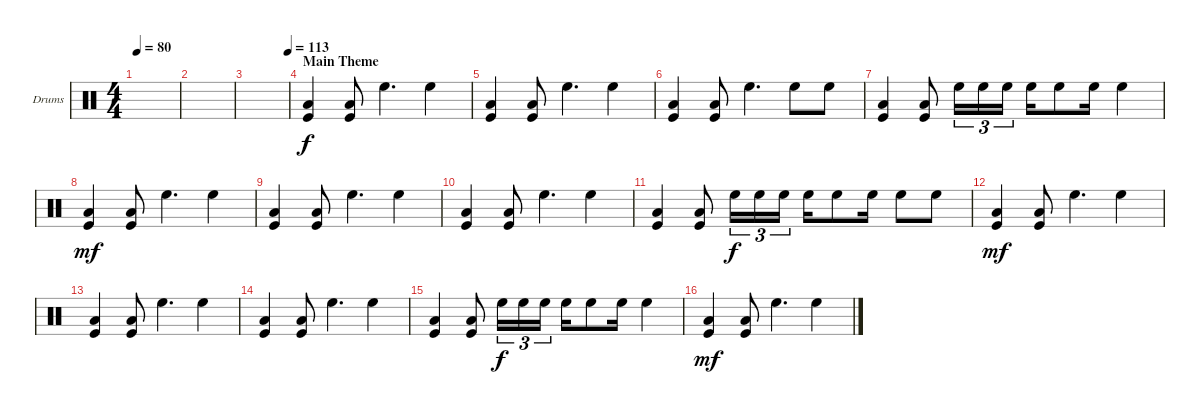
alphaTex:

\defaultSystemsLayout 4
\bracketExtendMode groupsimilarinstruments
\firstSystemTrackNameOrientation horizontal
\otherSystemsTrackNameOrientation horizontal
\track ("Drumkit" "Drums") {instrument percussion}
\staff {score}
\articulation defaults
\ts (4 4)
\tempo 80
\clef neutral
\scale
0.333333
\ks c
|
\scale
0.333333 |
\tempo (113 1)
\scale
0.333333 |
\section ("" "Main Theme")
\scale
0.333333 ("Kick (hit)" "Low Tom (hit)").4 ("Kick (hit)" "Low Tom (hit)").8 "High Floor Tom (hit)".4{d} "High Floor Tom (hit)".4 |
\scale
0.333333 ("Kick (hit)" "Low Tom (hit)").4 ("Kick (hit)" "Low Tom (hit)").8 "High Floor Tom (hit)".4{d} "High Floor Tom (hit)".4 |
\scale
0.333333 ("Kick (hit)" "Low Tom (hit)").4 ("Kick (hit)" "Low Tom (hit)").8 "High Floor Tom (hit)".4{d} "High Floor Tom (hit)".8 "High Floor Tom (hit)".8 |
\scale
0.333333 ("Kick (hit)" "Low Tom (hit)").4 ("Kick (hit)" "Low Tom (hit)").8 "High Floor Tom (hit)".16{tu (3 2) dy f} "High Floor Tom (hit)".16{tu (3 2)} "High Floor Tom (hit)".16{tu (3 2)} "High Floor Tom (hit)".16 "High Floor Tom (hit)".8 "High Floor Tom (hit)".16 "High Floor Tom (hit)".4 |
\scale
0.333333 ("Kick (hit)" "Low Tom (hit)").4{dy mf} ("Kick (hit)" "Low Tom (hit)").8 "High Floor Tom (hit)".4{d} "High Floor Tom (hit)".4 |
\scale
0.333333 ("Kick (hit)" "Low Tom (hit)").4 ("Kick (hit)" "Low Tom (hit)").8 "High Floor Tom (hit)".4{d} "High Floor Tom (hit)".4 |
\scale
0.333333 ("Kick (hit)" "Low Tom (hit)").4 ("Kick (hit)" "Low Tom (hit)").8 "High Floor Tom (hit)".4{d} "High Floor Tom (hit)".4 |
\scale
0.333333 ("Kick (hit)" "Low Tom (hit)").4 ("Kick (hit)" "Low Tom (hit)").8 "High Floor Tom (hit)".16{tu (3 2) dy f} "High Floor Tom (hit)".16{tu (3 2)} "High Floor Tom (hit)".16{tu (3 2)} "High Floor Tom (hit)".16 "High Floor Tom (hit)".8 "High Floor Tom (hit)".16 "High Floor Tom (hit)".8 "High Floor Tom (hit)".8 |
\scale
0.333333 ("Kick (hit)" "Low Tom (hit)").4{dy mf} ("Kick (hit)" "Low Tom (hit)").8 "High Floor Tom (hit)".4{d} "High Floor Tom (hit)".4 |
\scale
0.333333 ("Kick (hit)" "Low Tom (hit)").4 ("Kick (hit)" "Low Tom (hit)").8 "High Floor Tom (hit)".4{d} "High Floor Tom (hit)".4 |
\scale
0.333333 ("Kick (hit)" "Low Tom (hit)").4 ("Kick (hit)" "Low Tom (hit)").8 "High Floor Tom (hit)".4{d} "High Floor Tom (hit)".4 |
\scale
0.333333 ("Kick (hit)" "Low Tom (hit)").4 ("Kick (hit)" "Low Tom (hit)").8 "High Floor Tom (hit)".16{tu (3 2) dy f} "High Floor Tom (hit)".16{tu (3 2)} "High Floor Tom (hit)".16{tu (3 2)} "High Floor Tom (hit)".16 "High Floor Tom (hit)".8 "High Floor Tom (hit)".16 "High Floor Tom (hit)".4 |
\scale
0.333333 ("Kick (hit)" "Low Tom (hit)").4{dy mf} ("Kick (hit)" "Low Tom (hit)").8 "High Floor Tom (hit)".4{d} "High Floor Tom (hit)".4
